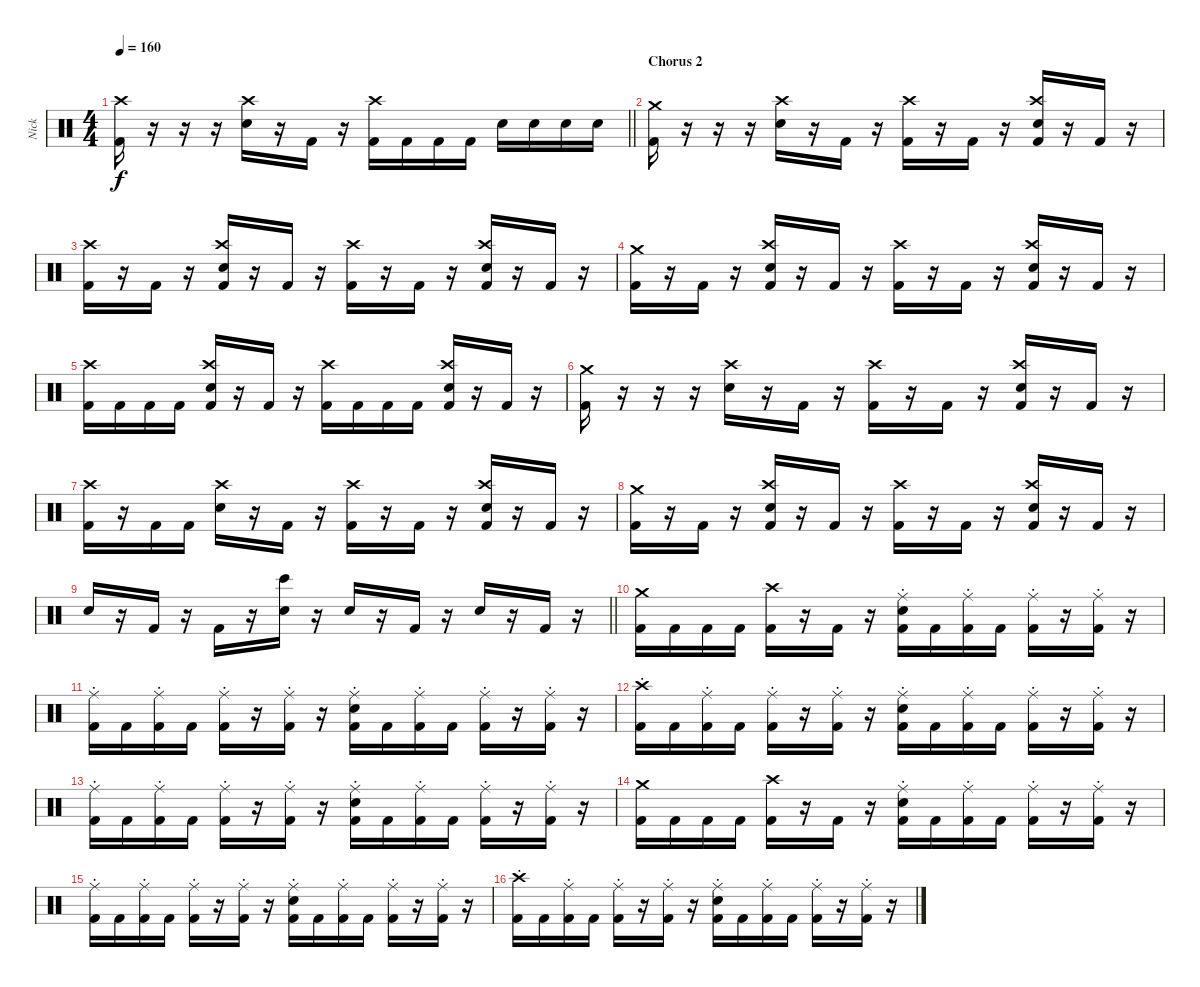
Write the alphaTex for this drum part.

\track ("Nick" "Nick") {instrument percussion}
\staff {score}
\articulation defaults
\ts (4 4)
\tempo 160
\clef neutral
\barLineRight lightlight
\ks c
("Kick (hit) 2" "Crash high (hit)").16{dy f} r.16 r.16 r.16 ("Electric Snare (hit)" "Crash high (hit)").16 r.16 "Kick (hit) 2".16 r.16 ("Kick (hit) 2" "Crash high (hit)").16 "Kick (hit) 2".16 "Kick (hit) 2".16 "Kick (hit) 2".16 "Electric Snare (hit)".16 "Electric Snare (hit)".16 "Electric Snare (hit)".16 "Electric Snare (hit)".16 |
\section ("" "Chorus 2")
("Kick (hit) 2" "Crash medium (hit)").16 r.16 r.16 r.16 ("Electric Snare (hit)" "Crash high (hit)").16 r.16 "Kick (hit) 2".16 r.16 ("Kick (hit) 2" "Crash high (hit)").16 r.16 "Kick (hit) 2".16 r.16 ("Kick (hit) 2" "Electric Snare (hit)" "Crash high (hit)").16 r.16 "Kick (hit) 2".16 r.16 |
("Kick (hit) 2" "Crash high (hit)").16 r.16 "Kick (hit) 2".16 r.16 ("Kick (hit) 2" "Electric Snare (hit)" "Crash high (hit)").16 r.16 "Kick (hit) 2".16 r.16 ("Kick (hit) 2" "Crash high (hit)").16 r.16 "Kick (hit) 2".16 r.16 ("Kick (hit) 2" "Electric Snare (hit)" "Crash high (hit)").16 r.16 "Kick (hit) 2".16 r.16 |
("Kick (hit) 2" "Crash medium (hit)").16 r.16 "Kick (hit) 2".16 r.16 ("Kick (hit) 2" "Electric Snare (hit)" "Crash high (hit)").16 r.16 "Kick (hit) 2".16 r.16 ("Kick (hit) 2" "Crash high (hit)").16 r.16 "Kick (hit) 2".16 r.16 ("Kick (hit) 2" "Electric Snare (hit)" "Crash high (hit)").16 r.16 "Kick (hit) 2".16 r.16 |
("Kick (hit) 2" "Crash high (hit)").16 "Kick (hit) 2".16 "Kick (hit) 2".16 "Kick (hit) 2".16 ("Kick (hit) 2" "Electric Snare (hit)" "Crash high (hit)").16 r.16 "Kick (hit) 2".16 r.16 ("Kick (hit) 2" "Crash high (hit)").16 "Kick (hit) 2".16 "Kick (hit) 2".16 "Kick (hit) 2".16 ("Kick (hit) 2" "Electric Snare (hit)" "Crash high (hit)").16 r.16 "Kick (hit) 2".16 r.16 |
("Kick (hit) 2" "Crash medium (hit)").16 r.16 r.16 r.16 ("Electric Snare (hit)" "Crash high (hit)").16 r.16 "Kick (hit) 2".16 r.16 ("Kick (hit) 2" "Crash high (hit)").16 r.16 "Kick (hit) 2".16 r.16 ("Kick (hit) 2" "Electric Snare (hit)" "Crash high (hit)").16 r.16 "Kick (hit) 2".16 r.16 |
("Kick (hit) 2" "Crash high (hit)").16 r.16 "Kick (hit) 2".16 "Kick (hit) 2".16 ("Electric Snare (hit)" "Crash high (hit)").16 r.16 "Kick (hit) 2".16 r.16 ("Kick (hit) 2" "Crash high (hit)").16 r.16 "Kick (hit) 2".16 r.16 ("Kick (hit) 2" "Electric Snare (hit)" "Crash high (hit)").16 r.16 "Kick (hit) 2".16 r.16 |
("Kick (hit) 2" "Crash medium (hit)").16 r.16 "Kick (hit) 2".16 r.16 ("Kick (hit) 2" "Electric Snare (hit)" "Crash high (hit)").16 r.16 "Kick (hit) 2".16 r.16 ("Kick (hit) 2" "Crash high (hit)").16 r.16 "Kick (hit) 2".16 r.16 ("Kick (hit) 2" "Electric Snare (hit)" "Crash high (hit)").16 r.16 "Kick (hit) 2".16 r.16 |
\barLineRight lightlight "Electric Snare (hit)".16
r.16 "Kick (hit) 2".16 r.16 "Kick (hit) 2".16 r.16 ("Electric Snare (hit)" "Bongo High (hit)").16 r.16 "Electric Snare (hit)".16 r.16 "Kick (hit) 2".16 r.16 "Electric Snare (hit)".16 r.16 "Kick (hit) 2".16 r.16 |
("Kick (hit) 2" "Crash medium (hit)").16 "Kick (hit) 2".16 "Kick (hit) 2".16 "Kick (hit) 2".16 ("Kick (hit) 2" "Crash high (hit)").16 r.16 "Kick (hit) 2".16 r.16 ("Kick (hit) 2" "Electric Snare (hit)" "Ride (middle)"{st}).16 "Kick (hit) 2".16 ("Kick (hit) 2" "Ride (middle)"{st}).16 "Kick (hit) 2".16 ("Kick (hit) 2" "Ride (middle)"{st}).16 r.16 ("Kick (hit) 2" "Ride (middle)"{st}).16 r.16 |
("Kick (hit) 2" "Ride (middle)"{st}).16 "Kick (hit) 2".16 ("Kick (hit) 2" "Ride (middle)"{st}).16 "Kick (hit) 2".16 ("Kick (hit) 2" "Ride (middle)"{st}).16 r.16 ("Kick (hit) 2" "Ride (middle)"{st}).16 r.16 ("Kick (hit) 2" "Electric Snare (hit)" "Ride (middle)"{st}).16 "Kick (hit) 2".16 ("Kick (hit) 2" "Ride (middle)"{st}).16 "Kick (hit) 2".16 ("Kick (hit) 2" "Ride (middle)"{st}).16 r.16 ("Kick (hit) 2" "Ride (middle)"{st}).16 r.16 |
("Kick (hit) 2" "Crash high (hit)"{st}).16 "Kick (hit) 2".16 ("Kick (hit) 2" "Ride (middle)"{st}).16 "Kick (hit) 2".16 ("Kick (hit) 2" "Ride (middle)"{st}).16 r.16 ("Kick (hit) 2" "Ride (middle)"{st}).16 r.16 ("Kick (hit) 2" "Electric Snare (hit)" "Ride (middle)"{st}).16 "Kick (hit) 2".16 ("Kick (hit) 2" "Ride (middle)"{st}).16 "Kick (hit) 2".16 ("Kick (hit) 2" "Ride (middle)"{st}).16 r.16 ("Kick (hit) 2" "Ride (middle)"{st}).16 r.16 |
("Kick (hit) 2" "Ride (middle)"{st}).16 "Kick (hit) 2".16 ("Kick (hit) 2" "Ride (middle)"{st}).16 "Kick (hit) 2".16 ("Kick (hit) 2" "Ride (middle)"{st}).16 r.16 ("Kick (hit) 2" "Ride (middle)"{st}).16 r.16 ("Kick (hit) 2" "Electric Snare (hit)" "Ride (middle)"{st}).16 "Kick (hit) 2".16 ("Kick (hit) 2" "Ride (middle)"{st}).16 "Kick (hit) 2".16 ("Kick (hit) 2" "Ride (middle)"{st}).16 r.16 ("Kick (hit) 2" "Ride (middle)"{st}).16 r.16 |
("Kick (hit) 2" "Crash medium (hit)").16 "Kick (hit) 2".16 "Kick (hit) 2".16 "Kick (hit) 2".16 ("Kick (hit) 2" "Crash high (hit)").16 r.16 "Kick (hit) 2".16 r.16 ("Kick (hit) 2" "Electric Snare (hit)" "Ride (middle)"{st}).16 "Kick (hit) 2".16 ("Kick (hit) 2" "Ride (middle)"{st}).16 "Kick (hit) 2".16 ("Kick (hit) 2" "Ride (middle)"{st}).16 r.16 ("Kick (hit) 2" "Ride (middle)"{st}).16 r.16 |
("Kick (hit) 2" "Ride (middle)"{st}).16 "Kick (hit) 2".16 ("Kick (hit) 2" "Ride (middle)"{st}).16 "Kick (hit) 2".16 ("Kick (hit) 2" "Ride (middle)"{st}).16 r.16 ("Kick (hit) 2" "Ride (middle)"{st}).16 r.16 ("Kick (hit) 2" "Electric Snare (hit)" "Ride (middle)"{st}).16 "Kick (hit) 2".16 ("Kick (hit) 2" "Ride (middle)"{st}).16 "Kick (hit) 2".16 ("Kick (hit) 2" "Ride (middle)"{st}).16 r.16 ("Kick (hit) 2" "Ride (middle)"{st}).16 r.16 |
("Kick (hit) 2" "Crash high (hit)"{st}).16 "Kick (hit) 2".16 ("Kick (hit) 2" "Ride (middle)"{st}).16 "Kick (hit) 2".16 ("Kick (hit) 2" "Ride (middle)"{st}).16 r.16 ("Kick (hit) 2" "Ride (middle)"{st}).16 r.16 ("Kick (hit) 2" "Electric Snare (hit)" "Ride (middle)"{st}).16 "Kick (hit) 2".16 ("Kick (hit) 2" "Ride (middle)"{st}).16 "Kick (hit) 2".16 ("Kick (hit) 2" "Ride (middle)"{st}).16 r.16 ("Kick (hit) 2" "Ride (middle)"{st}).16 r.16
